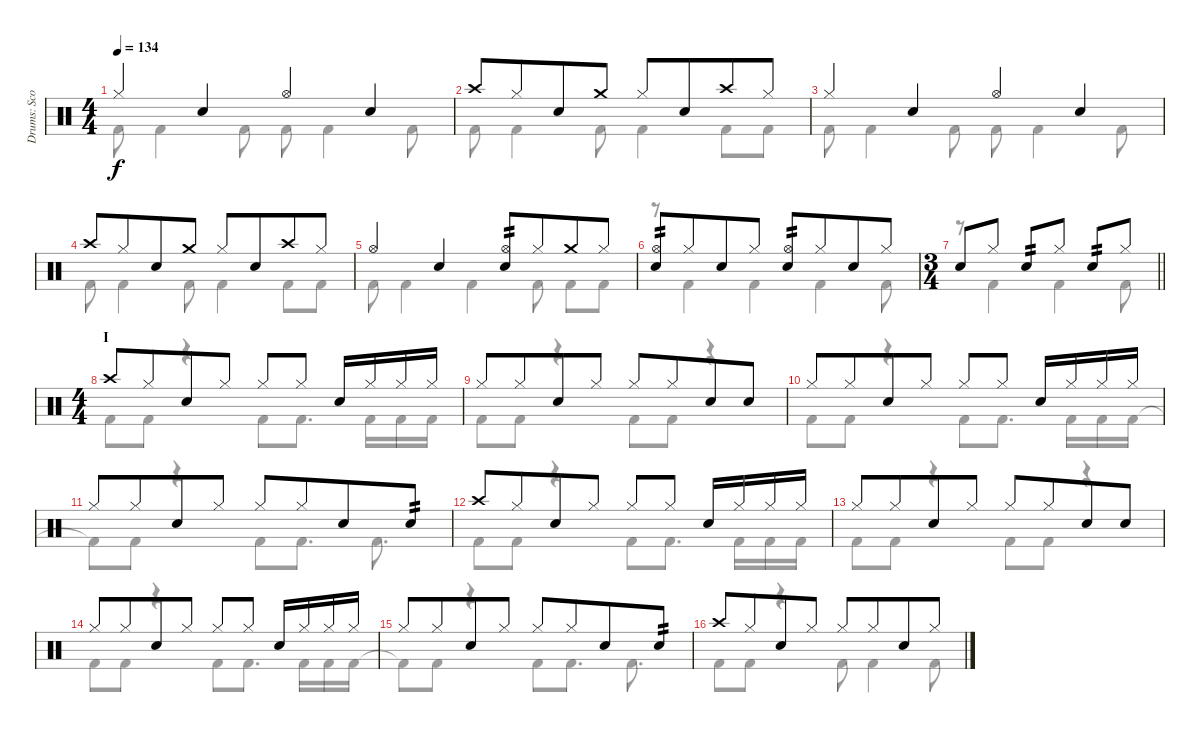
\track ("Drums: Scott" "Drums: Sco") {instrument percussion}
\staff {score}
\articulation defaults
\voice
\ts (4 4)
\tempo 134
\clef neutral
\ks c "Hi-Hat (closed)".4{dy f} "Snare (hit) 2".4 "Hi-Hat (open)".4 "Snare (hit) 2".4
|
"Crash high (hit)".8 "Hi-Hat (closed)".8{beam merge} "Snare (hit) 2".8 "Crash medium (hit)".8 "Hi-Hat (closed)".8 "Snare (hit) 2".8{beam merge} "Crash high (hit)".8 "Hi-Hat (closed)".8 |
"Hi-Hat (closed)".4 "Snare (hit) 2".4 "Hi-Hat (open)".4 "Snare (hit) 2".4 |
"Crash high (hit)".8 "Hi-Hat (closed)".8{beam merge} "Snare (hit) 2".8 "Crash medium (hit)".8 "Hi-Hat (closed)".8 "Snare (hit) 2".8{beam merge} "Crash high (hit)".8 "Hi-Hat (closed)".8 |
"Hi-Hat (open)".4 "Snare (hit) 2".4 ("Hi-Hat (open)" "Snare (hit) 2").8{tp 2} "Hi-Hat (closed)".8{beam merge} "Crash medium (hit)".8 "Hi-Hat (closed)".8 |
("Hi-Hat (open)" "Snare (hit) 2").8{tp 2} "Hi-Hat (closed)".8{beam merge} "Snare (hit) 2".8 "Hi-Hat (closed)".8 ("Hi-Hat (open)" "Snare (hit) 2").8{tp 2} "Hi-Hat (closed)".8{beam merge} "Snare (hit) 2".8 "Hi-Hat (closed)".8 |
\ts (3 4)
\barLineRight lightlight "Snare (hit) 2".8 "Hi-Hat (closed)".8 "Snare (hit) 2".8{tp 2} "Hi-Hat (closed)".8 "Snare (hit) 2".8{tp 2} "Hi-Hat (closed)".8
|
\ts (4 4)
\section ("" "I")
"Crash high (hit)".8 "Hi-Hat (closed)".8{beam merge} "Snare (hit) 2".8 "Hi-Hat (closed)".8 "Hi-Hat (closed)".8 "Hi-Hat (closed)".8 "Snare (hit) 2".16 "Hi-Hat (closed)".16 "Hi-Hat (closed)".16 "Hi-Hat (closed)".16 |
"Hi-Hat (closed)".8 "Hi-Hat (closed)".8{beam merge} "Snare (hit) 2".8 "Hi-Hat (closed)".8 "Hi-Hat (closed)".8 "Hi-Hat (closed)".8{beam merge} "Snare (hit) 2".8 "Snare (hit) 2".8 |
"Hi-Hat (closed)".8 "Hi-Hat (closed)".8{beam merge} "Snare (hit) 2".8 "Hi-Hat (closed)".8 "Hi-Hat (closed)".8 "Hi-Hat (closed)".8 "Snare (hit) 2".16 "Hi-Hat (closed)".16 "Hi-Hat (closed)".16 "Hi-Hat (closed)".16 |
"Hi-Hat (closed)".8 "Hi-Hat (closed)".8{beam merge} "Snare (hit) 2".8 "Hi-Hat (closed)".8 "Hi-Hat (closed)".8 "Hi-Hat (closed)".8{beam merge} "Snare (hit) 2".8 "Snare (hit) 2".8{tp 2} |
"Crash high (hit)".8 "Hi-Hat (closed)".8{beam merge} "Snare (hit) 2".8 "Hi-Hat (closed)".8 "Hi-Hat (closed)".8 "Hi-Hat (closed)".8 "Snare (hit) 2".16 "Hi-Hat (closed)".16 "Hi-Hat (closed)".16 "Hi-Hat (closed)".16 |
"Hi-Hat (closed)".8 "Hi-Hat (closed)".8{beam merge} "Snare (hit) 2".8 "Hi-Hat (closed)".8 "Hi-Hat (closed)".8 "Hi-Hat (closed)".8{beam merge} "Snare (hit) 2".8 "Snare (hit) 2".8 |
"Hi-Hat (closed)".8 "Hi-Hat (closed)".8{beam merge} "Snare (hit) 2".8 "Hi-Hat (closed)".8 "Hi-Hat (closed)".8 "Hi-Hat (closed)".8 "Snare (hit) 2".16 "Hi-Hat (closed)".16 "Hi-Hat (closed)".16 "Hi-Hat (closed)".16 |
"Hi-Hat (closed)".8 "Hi-Hat (closed)".8{beam merge} "Snare (hit) 2".8 "Hi-Hat (closed)".8 "Hi-Hat (closed)".8 "Hi-Hat (closed)".8{beam merge} "Snare (hit) 2".8 "Snare (hit) 2".8{tp 2} |
"Crash high (hit)".8 "Hi-Hat (closed)".8{beam merge} "Snare (hit) 2".8 "Hi-Hat (closed)".8 "Hi-Hat (closed)".8 "Hi-Hat (closed)".8{beam merge} "Snare (hit) 2".8 "Hi-Hat (closed)".8
\voice
\clef neutral
\ottava regular
\simile none
\ks c "Kick (hit) 2".8{dy f} "Kick (hit) 2".4 "Kick (hit) 2".8 "Kick (hit) 2".8 "Kick (hit) 2".4 "Kick (hit) 2".8
|
"Kick (hit) 2".8 "Kick (hit) 2".4 "Kick (hit) 2".8 "Kick (hit) 2".4 "Kick (hit) 2".8 "Kick (hit) 2".8 |
"Kick (hit) 2".8 "Kick (hit) 2".4 "Kick (hit) 2".8 "Kick (hit) 2".8 "Kick (hit) 2".4 "Kick (hit) 2".8 |
"Kick (hit) 2".8 "Kick (hit) 2".4 "Kick (hit) 2".8 "Kick (hit) 2".4 "Kick (hit) 2".8 "Kick (hit) 2".8 |
"Kick (hit) 2".8 "Kick (hit) 2".4 "Kick (hit) 2".4 "Kick (hit) 2".8 "Kick (hit) 2".8 "Kick (hit) 2".8 |
r.8 "Kick (hit) 2".4 "Kick (hit) 2".4 "Kick (hit) 2".4 "Kick (hit) 2".8 |
\barLineRight lightlight
r.8 "Kick (hit) 2".4 "Kick (hit) 2".4 "Kick (hit) 2".8 |
"Kick (hit) 2".8 "Kick (hit) 2".8 r.4 "Kick (hit) 2".8 "Kick (hit) 2".8{d} "Kick (hit) 2".16 "Kick (hit) 2".16 "Kick (hit) 2".16 |
"Kick (hit) 2".8 "Kick (hit) 2".8 r.4 "Kick (hit) 2".8 "Kick (hit) 2".8 r.4 |
"Kick (hit) 2".8 "Kick (hit) 2".8 r.4 "Kick (hit) 2".8 "Kick (hit) 2".8{d} "Kick (hit) 2".16 "Kick (hit) 2".16 "Kick (hit) 2".16 |
"Kick (hit) 2"{t}.8 "Kick (hit) 2".8 r.4 "Kick (hit) 2".8 "Kick (hit) 2".8{d} "Kick (hit) 2".8{d} |
"Kick (hit) 2".8 "Kick (hit) 2".8 r.4 "Kick (hit) 2".8 "Kick (hit) 2".8{d} "Kick (hit) 2".16 "Kick (hit) 2".16 "Kick (hit) 2".16 |
"Kick (hit) 2".8 "Kick (hit) 2".8 r.4 "Kick (hit) 2".8 "Kick (hit) 2".8 r.4 |
"Kick (hit) 2".8 "Kick (hit) 2".8 r.4 "Kick (hit) 2".8 "Kick (hit) 2".8{d} "Kick (hit) 2".16 "Kick (hit) 2".16 "Kick (hit) 2".16 |
"Kick (hit) 2"{t}.8 "Kick (hit) 2".8 r.4 "Kick (hit) 2".8 "Kick (hit) 2".8{d} "Kick (hit) 2".8{d} |
"Kick (hit) 2".8 "Kick (hit) 2".8 r.4 "Kick (hit) 2".8 "Kick (hit) 2".4 "Kick (hit) 2".8
